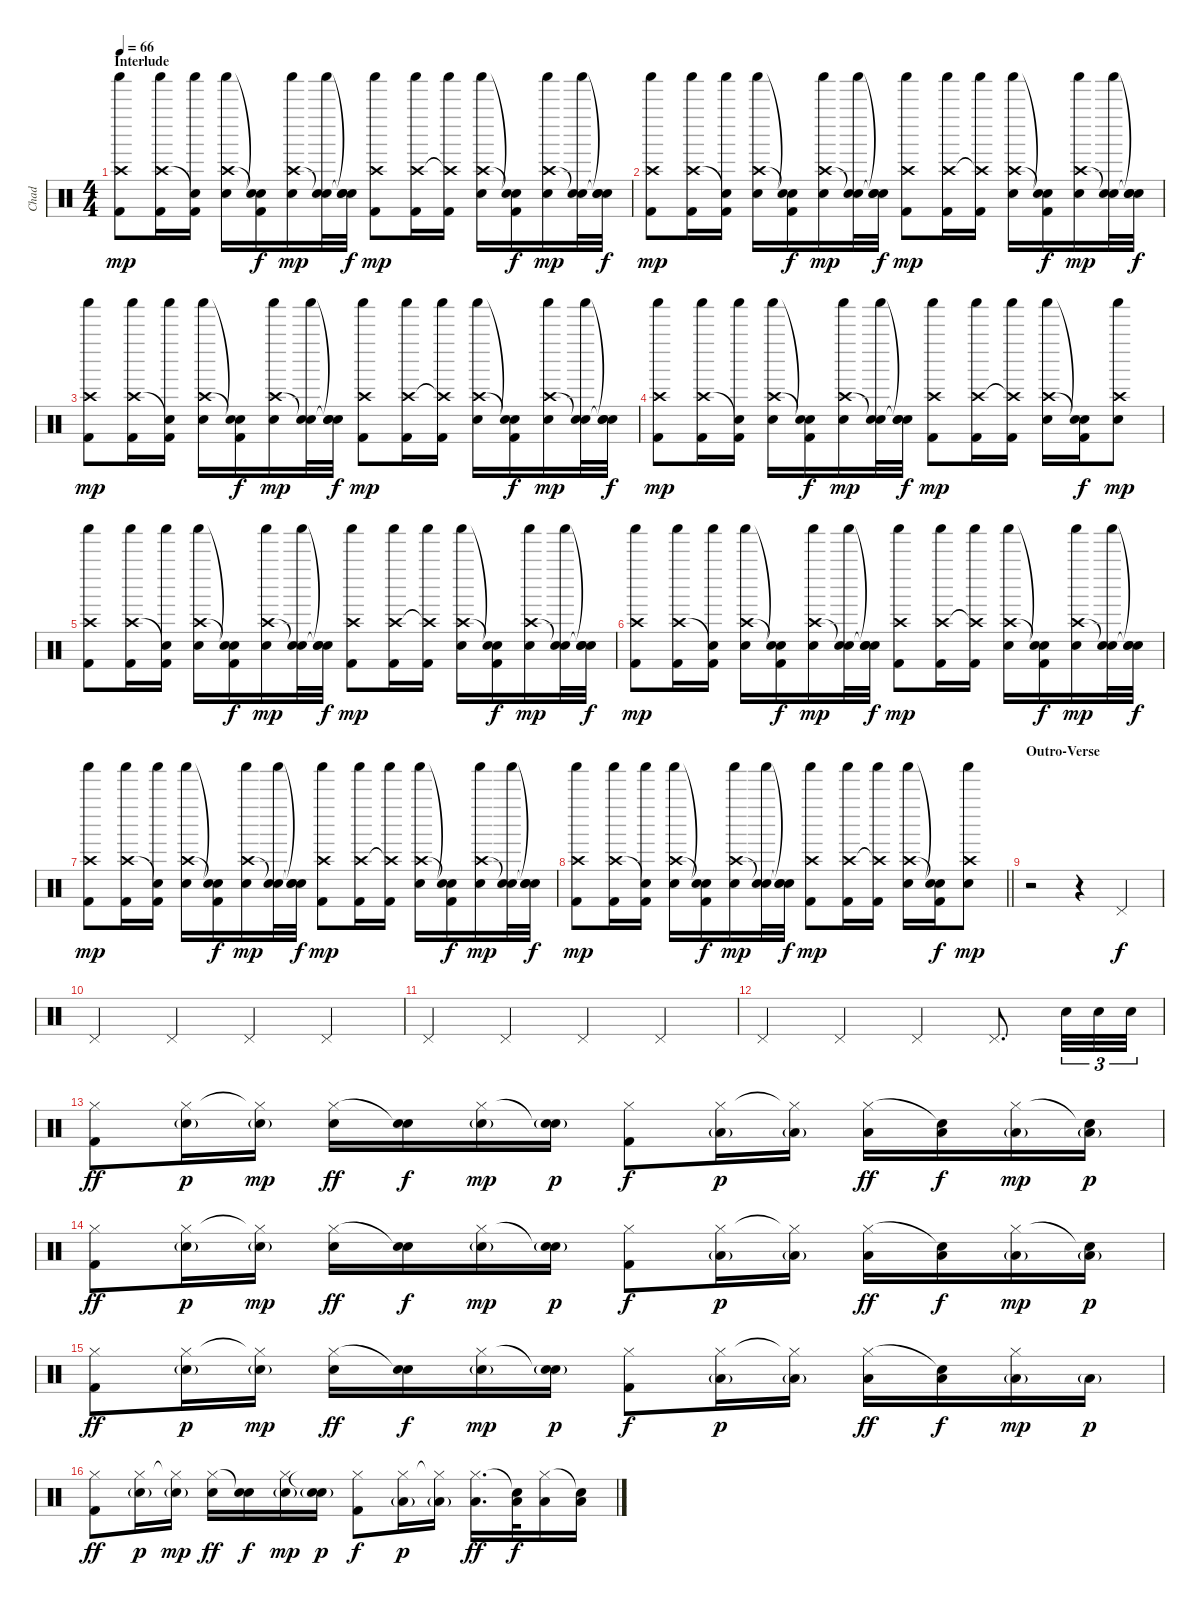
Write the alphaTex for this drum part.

\track ("Chad" "Chad") {instrument percussion}
\staff {score}
\articulation defaults
\ts (4 4)
\section ("" "Interlude")
\tempo 66
\clef neutral
\ks c
("Crash high (hit)" "Shaker (hit)" "Kick (hit) 2").8{dy mp} ("Crash high (hit)" "Shaker (hit)" "Kick (hit) 2").16 ("Snare (hit)"{t} "Shaker (hit)" "Kick (hit) 2").16 ("Crash high (hit)" "Shaker (hit)" "Snare (hit) 2").16 ("Snare (hit)"{t} "Snare (hit)"{t} "Kick (hit) 2").16{dy f} ("Crash high (hit)" "Shaker (hit)" "Snare (hit) 2").16{dy mp} ("Snare (hit)"{t} "Shaker (hit)" "Snare (hit) 2").32 ("Snare (hit)"{t} "Snare (hit)"{t} "Snare (hit) 2").32{dy f} ("Crash high (hit)" "Shaker (hit)" "Kick (hit) 2").8{dy mp} ("Crash high (hit)" "Shaker (hit)" "Kick (hit) 2").16 ("Crash high (hit)"{t} "Shaker (hit)" "Kick (hit) 2").16 ("Crash high (hit)" "Shaker (hit)" "Snare (hit) 2").16 ("Snare (hit)"{t} "Snare (hit)"{t} "Kick (hit) 2").16{dy f} ("Crash high (hit)" "Shaker (hit)" "Snare (hit) 2").16{dy mp} ("Snare (hit)"{t} "Shaker (hit)" "Snare (hit) 2").32 ("Snare (hit)"{t} "Snare (hit)"{t} "Snare (hit) 2").32{dy f} |
("Crash high (hit)" "Shaker (hit)" "Kick (hit) 2").8{dy mp} ("Crash high (hit)" "Shaker (hit)" "Kick (hit) 2").16 ("Snare (hit)"{t} "Shaker (hit)" "Kick (hit) 2").16 ("Crash high (hit)" "Shaker (hit)" "Snare (hit) 2").16 ("Snare (hit)"{t} "Snare (hit)"{t} "Kick (hit) 2").16{dy f} ("Crash high (hit)" "Shaker (hit)" "Snare (hit) 2").16{dy mp} ("Snare (hit)"{t} "Shaker (hit)" "Snare (hit) 2").32 ("Snare (hit)"{t} "Snare (hit)"{t} "Snare (hit) 2").32{dy f} ("Crash high (hit)" "Shaker (hit)" "Kick (hit) 2").8{dy mp} ("Crash high (hit)" "Shaker (hit)" "Kick (hit) 2").16 ("Crash high (hit)"{t} "Shaker (hit)" "Kick (hit) 2").16 ("Crash high (hit)" "Shaker (hit)" "Snare (hit) 2").16 ("Snare (hit)"{t} "Snare (hit)"{t} "Kick (hit) 2").16{dy f} ("Crash high (hit)" "Shaker (hit)" "Snare (hit) 2").16{dy mp} ("Snare (hit)"{t} "Shaker (hit)" "Snare (hit) 2").32 ("Snare (hit)"{t} "Snare (hit)"{t} "Snare (hit) 2").32{dy f} |
("Crash high (hit)" "Shaker (hit)" "Kick (hit) 2").8{dy mp} ("Crash high (hit)" "Shaker (hit)" "Kick (hit) 2").16 ("Snare (hit)"{t} "Shaker (hit)" "Kick (hit) 2").16 ("Crash high (hit)" "Shaker (hit)" "Snare (hit) 2").16 ("Snare (hit)"{t} "Snare (hit)"{t} "Kick (hit) 2").16{dy f} ("Crash high (hit)" "Shaker (hit)" "Snare (hit) 2").16{dy mp} ("Snare (hit)"{t} "Shaker (hit)" "Snare (hit) 2").32 ("Snare (hit)"{t} "Snare (hit)"{t} "Snare (hit) 2").32{dy f} ("Crash high (hit)" "Shaker (hit)" "Kick (hit) 2").8{dy mp} ("Crash high (hit)" "Shaker (hit)" "Kick (hit) 2").16 ("Crash high (hit)"{t} "Shaker (hit)" "Kick (hit) 2").16 ("Crash high (hit)" "Shaker (hit)" "Snare (hit) 2").16 ("Snare (hit)"{t} "Snare (hit)"{t} "Kick (hit) 2").16{dy f} ("Crash high (hit)" "Shaker (hit)" "Snare (hit) 2").16{dy mp} ("Snare (hit)"{t} "Shaker (hit)" "Snare (hit) 2").32 ("Snare (hit)"{t} "Snare (hit)"{t} "Snare (hit) 2").32{dy f} |
("Crash high (hit)" "Shaker (hit)" "Kick (hit) 2").8{dy mp} ("Crash high (hit)" "Shaker (hit)" "Kick (hit) 2").16 ("Snare (hit)"{t} "Shaker (hit)" "Kick (hit) 2").16 ("Crash high (hit)" "Shaker (hit)" "Snare (hit) 2").16 ("Snare (hit)"{t} "Snare (hit)"{t} "Kick (hit) 2").16{dy f} ("Crash high (hit)" "Shaker (hit)" "Snare (hit) 2").16{dy mp} ("Snare (hit)"{t} "Shaker (hit)" "Snare (hit) 2").32 ("Snare (hit)"{t} "Snare (hit)"{t} "Snare (hit) 2").32{dy f} ("Crash high (hit)" "Shaker (hit)" "Kick (hit) 2").8{dy mp} ("Crash high (hit)" "Shaker (hit)" "Kick (hit) 2").16 ("Crash high (hit)"{t} "Shaker (hit)" "Kick (hit) 2").16 ("Crash high (hit)" "Shaker (hit)" "Snare (hit) 2").16 ("Snare (hit)"{t} "Snare (hit)"{t} "Kick (hit) 2").16{dy f} ("Crash high (hit)" "Shaker (hit)" "Snare (hit) 2").8{dy mp} |
("Crash high (hit)" "Shaker (hit)" "Kick (hit) 2").8 ("Crash high (hit)" "Shaker (hit)" "Kick (hit) 2").16 ("Snare (hit)"{t} "Shaker (hit)" "Kick (hit) 2").16 ("Crash high (hit)" "Shaker (hit)" "Snare (hit) 2").16 ("Snare (hit)"{t} "Snare (hit)"{t} "Kick (hit) 2").16{dy f} ("Crash high (hit)" "Shaker (hit)" "Snare (hit) 2").16{dy mp} ("Snare (hit)"{t} "Shaker (hit)" "Snare (hit) 2").32 ("Snare (hit)"{t} "Snare (hit)"{t} "Snare (hit) 2").32{dy f} ("Crash high (hit)" "Shaker (hit)" "Kick (hit) 2").8{dy mp} ("Crash high (hit)" "Shaker (hit)" "Kick (hit) 2").16 ("Crash high (hit)"{t} "Shaker (hit)" "Kick (hit) 2").16 ("Crash high (hit)" "Shaker (hit)" "Snare (hit) 2").16 ("Snare (hit)"{t} "Snare (hit)"{t} "Kick (hit) 2").16{dy f} ("Crash high (hit)" "Shaker (hit)" "Snare (hit) 2").16{dy mp} ("Snare (hit)"{t} "Shaker (hit)" "Snare (hit) 2").32 ("Snare (hit)"{t} "Snare (hit)"{t} "Snare (hit) 2").32{dy f} |
("Crash high (hit)" "Shaker (hit)" "Kick (hit) 2").8{dy mp} ("Crash high (hit)" "Shaker (hit)" "Kick (hit) 2").16 ("Snare (hit)"{t} "Shaker (hit)" "Kick (hit) 2").16 ("Crash high (hit)" "Shaker (hit)" "Snare (hit) 2").16 ("Snare (hit)"{t} "Snare (hit)"{t} "Kick (hit) 2").16{dy f} ("Crash high (hit)" "Shaker (hit)" "Snare (hit) 2").16{dy mp} ("Snare (hit)"{t} "Shaker (hit)" "Snare (hit) 2").32 ("Snare (hit)"{t} "Snare (hit)"{t} "Snare (hit) 2").32{dy f} ("Crash high (hit)" "Shaker (hit)" "Kick (hit) 2").8{dy mp} ("Crash high (hit)" "Shaker (hit)" "Kick (hit) 2").16 ("Crash high (hit)"{t} "Shaker (hit)" "Kick (hit) 2").16 ("Crash high (hit)" "Shaker (hit)" "Snare (hit) 2").16 ("Snare (hit)"{t} "Snare (hit)"{t} "Kick (hit) 2").16{dy f} ("Crash high (hit)" "Shaker (hit)" "Snare (hit) 2").16{dy mp} ("Snare (hit)"{t} "Shaker (hit)" "Snare (hit) 2").32 ("Snare (hit)"{t} "Snare (hit)"{t} "Snare (hit) 2").32{dy f} |
("Crash high (hit)" "Shaker (hit)" "Kick (hit) 2").8{dy mp} ("Crash high (hit)" "Shaker (hit)" "Kick (hit) 2").16 ("Snare (hit)"{t} "Shaker (hit)" "Kick (hit) 2").16 ("Crash high (hit)" "Shaker (hit)" "Snare (hit) 2").16 ("Snare (hit)"{t} "Snare (hit)"{t} "Kick (hit) 2").16{dy f} ("Crash high (hit)" "Shaker (hit)" "Snare (hit) 2").16{dy mp} ("Snare (hit)"{t} "Shaker (hit)" "Snare (hit) 2").32 ("Snare (hit)"{t} "Snare (hit)"{t} "Snare (hit) 2").32{dy f} ("Crash high (hit)" "Shaker (hit)" "Kick (hit) 2").8{dy mp} ("Crash high (hit)" "Shaker (hit)" "Kick (hit) 2").16 ("Crash high (hit)"{t} "Shaker (hit)" "Kick (hit) 2").16 ("Crash high (hit)" "Shaker (hit)" "Snare (hit) 2").16 ("Snare (hit)"{t} "Snare (hit)"{t} "Kick (hit) 2").16{dy f} ("Crash high (hit)" "Shaker (hit)" "Snare (hit) 2").16{dy mp} ("Snare (hit)"{t} "Shaker (hit)" "Snare (hit) 2").32 ("Snare (hit)"{t} "Snare (hit)"{t} "Snare (hit) 2").32{dy f} |
\barLineRight lightlight
("Crash high (hit)" "Shaker (hit)" "Kick (hit) 2").8{dy mp} ("Crash high (hit)" "Shaker (hit)" "Kick (hit) 2").16 ("Snare (hit)"{t} "Shaker (hit)" "Kick (hit) 2").16 ("Crash high (hit)" "Shaker (hit)" "Snare (hit) 2").16 ("Snare (hit)"{t} "Snare (hit)"{t} "Kick (hit) 2").16{dy f} ("Crash high (hit)" "Shaker (hit)" "Snare (hit) 2").16{dy mp} ("Snare (hit)"{t} "Shaker (hit)" "Snare (hit) 2").32 ("Snare (hit)"{t} "Snare (hit)"{t} "Snare (hit) 2").32{dy f} ("Crash high (hit)" "Shaker (hit)" "Kick (hit) 2").8{dy mp} ("Crash high (hit)" "Shaker (hit)" "Kick (hit) 2").16 ("Crash high (hit)"{t} "Shaker (hit)" "Kick (hit) 2").16 ("Crash high (hit)" "Shaker (hit)" "Snare (hit) 2").16 ("Snare (hit)"{t} "Snare (hit)"{t} "Kick (hit) 2").16{dy f} ("Crash high (hit)" "Shaker (hit)" "Snare (hit) 2").8{dy mp} |
\section ("" "Outro-Verse")
r.2 r.4 "Pedal Hi-Hat (hit)".4{dy f} |
"Pedal Hi-Hat (hit)".4 "Pedal Hi-Hat (hit)".4 "Pedal Hi-Hat (hit)".4 "Pedal Hi-Hat (hit)".4 |
"Pedal Hi-Hat (hit)".4 "Pedal Hi-Hat (hit)".4 "Pedal Hi-Hat (hit)".4 "Pedal Hi-Hat (hit)".4 |
"Pedal Hi-Hat (hit)".4 "Pedal Hi-Hat (hit)".4 "Pedal Hi-Hat (hit)".4 "Pedal Hi-Hat (hit)".8{d} "Snare (hit) 2".32{tu (3 2)} "Snare (hit) 2".32{tu (3 2)} "Snare (hit) 2".32{tu (3 2)} |
("Hi-Hat (closed)" "Kick (hit) 2").8{dy ff volume 12} ("Hi-Hat (closed)" "Snare (hit) 2"{g}).16{dy p} ("Hi-Hat (closed)"{t} "Snare (hit) 2"{g}).16{dy mp} ("Hi-Hat (closed)" "Snare (hit) 2").16{dy ff} ("Snare (hit)"{t} "Snare (hit) 2").16{dy f} ("Hi-Hat (closed)" "Snare (hit) 2"{g}).16{dy mp} ("Snare (hit)"{t} "Snare (hit) 2"{g}).16{dy p} ("Hi-Hat (closed)" "Kick (hit) 2").8{dy f} ("Hi-Hat (closed)" "Low Floor Tom (hit)"{g}).16{dy p} ("Hi-Hat (closed)"{t} "Low Floor Tom (hit)"{g}).16 ("Hi-Hat (closed)" "Low Floor Tom (hit)").16{dy ff} ("Snare (hit)"{t} "Low Floor Tom (hit)").16{dy f} ("Hi-Hat (closed)" "Low Floor Tom (hit)"{g}).16{dy mp} ("Snare (hit)"{t} "Low Floor Tom (hit)"{g}).16{dy p} |
("Hi-Hat (closed)" "Kick (hit) 2").8{dy ff} ("Hi-Hat (closed)" "Snare (hit) 2"{g}).16{dy p} ("Hi-Hat (closed)"{t} "Snare (hit) 2"{g}).16{dy mp} ("Hi-Hat (closed)" "Snare (hit) 2").16{dy ff} ("Snare (hit)"{t} "Snare (hit) 2").16{dy f} ("Hi-Hat (closed)" "Snare (hit) 2"{g}).16{dy mp} ("Snare (hit)"{t} "Snare (hit) 2"{g}).16{dy p} ("Hi-Hat (closed)" "Kick (hit) 2").8{dy f} ("Hi-Hat (closed)" "Low Floor Tom (hit)"{g}).16{dy p} ("Hi-Hat (closed)"{t} "Low Floor Tom (hit)"{g}).16 ("Hi-Hat (closed)" "Low Floor Tom (hit)").16{dy ff} ("Snare (hit)"{t} "Low Floor Tom (hit)").16{dy f} ("Hi-Hat (closed)" "Low Floor Tom (hit)"{g}).16{dy mp} ("Snare (hit)"{t} "Low Floor Tom (hit)"{g}).16{dy p} |
("Hi-Hat (closed)" "Kick (hit) 2").8{dy ff} ("Hi-Hat (closed)" "Snare (hit) 2"{g}).16{dy p} ("Hi-Hat (closed)"{t} "Snare (hit) 2"{g}).16{dy mp} ("Hi-Hat (closed)" "Snare (hit) 2").16{dy ff} ("Snare (hit)"{t} "Snare (hit) 2").16{dy f} ("Hi-Hat (closed)" "Snare (hit) 2"{g}).16{dy mp} ("Snare (hit)"{t} "Snare (hit) 2"{g}).16{dy p} ("Hi-Hat (closed)" "Kick (hit) 2").8{dy f} ("Hi-Hat (closed)" "Low Floor Tom (hit)"{g}).16{dy p} ("Hi-Hat (closed)"{t} "Low Floor Tom (hit)"{g}).16 ("Hi-Hat (closed)" "Low Floor Tom (hit)").16{dy ff} ("Snare (hit)"{t} "Low Floor Tom (hit)").16{dy f} ("Hi-Hat (closed)" "Low Floor Tom (hit)"{g}).16{dy mp} "Low Floor Tom (hit)"{g}.16{dy p} |
("Hi-Hat (closed)" "Kick (hit) 2").8{dy ff} ("Hi-Hat (closed)" "Snare (hit) 2"{g}).16{dy p} ("Hi-Hat (closed)"{t} "Snare (hit) 2"{g}).16{dy mp} ("Hi-Hat (closed)" "Snare (hit) 2").16{dy ff} ("Snare (hit)"{t} "Snare (hit) 2").16{dy f} ("Hi-Hat (closed)" "Snare (hit) 2"{g}).16{dy mp} ("Snare (hit)"{t} "Snare (hit) 2"{g}).16{dy p} ("Hi-Hat (closed)" "Kick (hit) 2").8{dy f} ("Hi-Hat (closed)" "Low Floor Tom (hit)"{g}).16{dy p} ("Hi-Hat (closed)"{t} "Low Floor Tom (hit)"{g}).16 ("Hi-Hat (closed)" "Low Floor Tom (hit)").16{d dy ff} ("Snare (hit)"{t} "Low Floor Tom (hit)").32{dy f} ("Hi-Hat (closed)" "Low Floor Tom (hit)").16 ("Snare (hit)"{t} "Low Floor Tom (hit)").16
